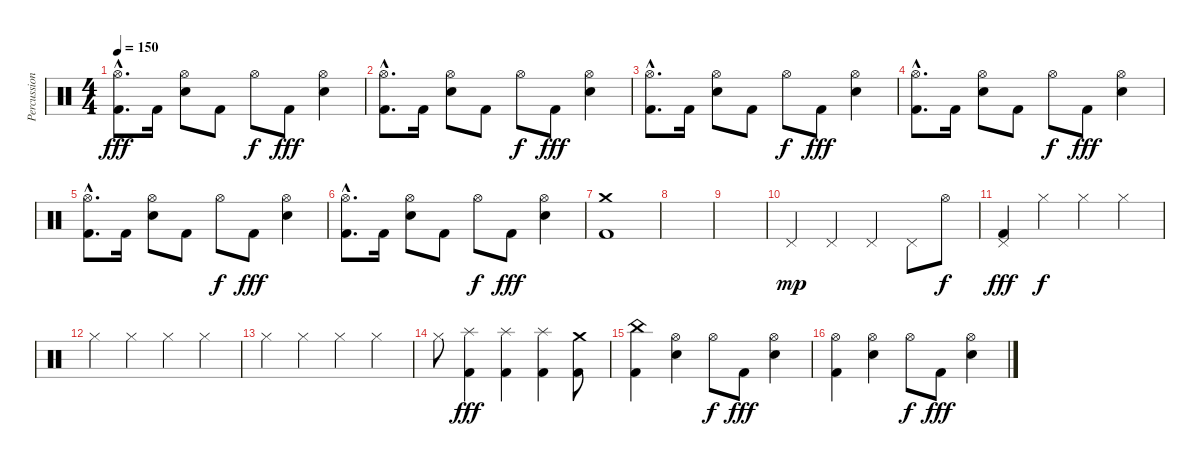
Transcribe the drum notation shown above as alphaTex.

\track ("Percussions" "Percussion") {instrument percussion}
\staff {score}
\articulation defaults
\ts (4 4)
\tempo 150
\clef neutral
\ks c
("Hi-Hat (open)"{hac} "Kick (hit) 2"{hac}).8{d dy fff} "Kick (hit) 2".16 ("Hi-Hat (open)" "Electric Snare (hit)").8 "Kick (hit) 2".8 "Hi-Hat (open)".8{dy f} "Kick (hit) 2".8{dy fff} ("Hi-Hat (open)" "Electric Snare (hit)").4 |
("Hi-Hat (open)"{hac} "Kick (hit) 2"{hac}).8{d} "Kick (hit) 2".16 ("Hi-Hat (open)" "Electric Snare (hit)").8 "Kick (hit) 2".8 "Hi-Hat (open)".8{dy f} "Kick (hit) 2".8{dy fff} ("Hi-Hat (open)" "Electric Snare (hit)").4 |
("Hi-Hat (open)"{hac} "Kick (hit) 2"{hac}).8{d} "Kick (hit) 2".16 ("Hi-Hat (open)" "Electric Snare (hit)").8 "Kick (hit) 2".8 "Hi-Hat (open)".8{dy f} "Kick (hit) 2".8{dy fff} ("Hi-Hat (open)" "Electric Snare (hit)").4 |
("Hi-Hat (open)"{hac} "Kick (hit) 2"{hac}).8{d} "Kick (hit) 2".16 ("Hi-Hat (open)" "Electric Snare (hit)").8 "Kick (hit) 2".8 "Hi-Hat (open)".8{dy f} "Kick (hit) 2".8{dy fff} ("Hi-Hat (open)" "Electric Snare (hit)").4 |
("Hi-Hat (open)"{hac} "Kick (hit) 2"{hac}).8{d} "Kick (hit) 2".16 ("Hi-Hat (open)" "Electric Snare (hit)").8 "Kick (hit) 2".8 "Hi-Hat (open)".8{dy f} "Kick (hit) 2".8{dy fff} ("Hi-Hat (open)" "Electric Snare (hit)").4 |
("Hi-Hat (open)"{hac} "Kick (hit) 2"{hac}).8{d} "Kick (hit) 2".16 ("Hi-Hat (open)" "Electric Snare (hit)").8 "Kick (hit) 2".8 "Hi-Hat (open)".8{dy f} "Kick (hit) 2".8{dy fff} ("Hi-Hat (open)" "Electric Snare (hit)").4 |
("Crash medium (hit)" "Kick (hit) 2").1 |
|
|
"Pedal Hi-Hat (hit)".4{dy mp} "Pedal Hi-Hat (hit)".4 "Pedal Hi-Hat (hit)".4 "Pedal Hi-Hat (hit)".8 "Hi-Hat (open)".8{dy f} |
("Pedal Hi-Hat (hit)" "Kick (hit) 2").4{dy fff} "Hi-Hat (closed)".4{dy f} "Hi-Hat (closed)".4 "Hi-Hat (closed)".4 |
"Hi-Hat (closed)".4 "Hi-Hat (closed)".4 "Hi-Hat (closed)".4 "Hi-Hat (closed)".4 |
"Hi-Hat (closed)".4 "Hi-Hat (closed)".4 "Hi-Hat (closed)".4 "Hi-Hat (closed)".4 |
"Hi-Hat (closed)".8 ("Splash (hit)" "Kick (hit) 2").4{dy fff} ("Splash (hit)" "Kick (hit) 2").4 ("Splash (hit)" "Kick (hit) 2").4 ("Crash medium (hit)" "Kick (hit) 2").8 |
("China (hit)" "Kick (hit) 2").4 ("Hi-Hat (open)" "Electric Snare (hit)").4 "Hi-Hat (open)".8{dy f} "Kick (hit) 2".8{dy fff} ("Hi-Hat (open)" "Electric Snare (hit)").4 |
("Hi-Hat (open)" "Kick (hit) 2").4 ("Hi-Hat (open)" "Electric Snare (hit)").4 "Hi-Hat (open)".8{dy f} "Kick (hit) 2".8{dy fff} ("Hi-Hat (open)" "Electric Snare (hit)").4
